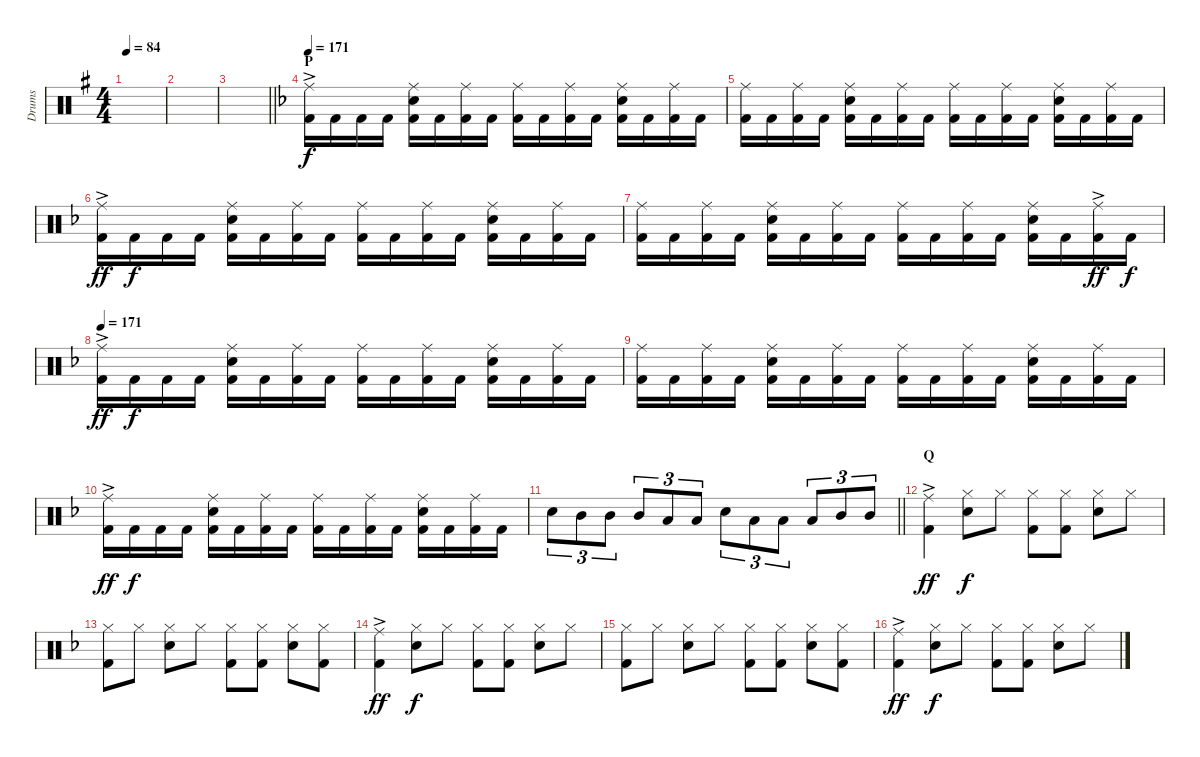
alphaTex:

\track ("Drums" "Drums") {instrument percussion}
\staff {score}
\articulation defaults
\ts (4 4)
\tempo 84
\clef neutral
\ks g
|
|
\barLineRight lightlight
|
\section ("" "P")
\tempo 171
\ks f
("Ride (middle)"{ac} "Kick (hit) 2").16 "Kick (hit) 2".16{dy f} "Kick (hit) 2".16 "Kick (hit) 2".16 ("Ride (middle)" "Snare (hit) 2" "Kick (hit) 2").16 "Kick (hit) 2".16 ("Ride (middle)" "Kick (hit) 2").16 "Kick (hit) 2".16 ("Ride (middle)" "Kick (hit) 2").16 "Kick (hit) 2".16 ("Ride (middle)" "Kick (hit) 2").16 "Kick (hit) 2".16 ("Ride (middle)" "Snare (hit) 2" "Kick (hit) 2").16 "Kick (hit) 2".16 ("Ride (middle)" "Kick (hit) 2").16 "Kick (hit) 2".16 |
("Ride (middle)" "Kick (hit) 2").16 "Kick (hit) 2".16 ("Ride (middle)" "Kick (hit) 2").16 "Kick (hit) 2".16 ("Ride (middle)" "Snare (hit) 2" "Kick (hit) 2").16 "Kick (hit) 2".16 ("Ride (middle)" "Kick (hit) 2").16 "Kick (hit) 2".16 ("Ride (middle)" "Kick (hit) 2").16 "Kick (hit) 2".16 ("Ride (middle)" "Kick (hit) 2").16 "Kick (hit) 2".16 ("Ride (middle)" "Snare (hit) 2" "Kick (hit) 2").16 "Kick (hit) 2".16 ("Ride (middle)" "Kick (hit) 2").16 "Kick (hit) 2".16 |
("Ride (middle)"{ac} "Kick (hit) 2").16{dy ff} "Kick (hit) 2".16{dy f} "Kick (hit) 2".16 "Kick (hit) 2".16 ("Ride (middle)" "Snare (hit) 2" "Kick (hit) 2").16 "Kick (hit) 2".16 ("Ride (middle)" "Kick (hit) 2").16 "Kick (hit) 2".16 ("Ride (middle)" "Kick (hit) 2").16 "Kick (hit) 2".16 ("Ride (middle)" "Kick (hit) 2").16 "Kick (hit) 2".16 ("Ride (middle)" "Snare (hit) 2" "Kick (hit) 2").16 "Kick (hit) 2".16 ("Ride (middle)" "Kick (hit) 2").16 "Kick (hit) 2".16 |
("Ride (middle)" "Kick (hit) 2").16 "Kick (hit) 2".16 ("Ride (middle)" "Kick (hit) 2").16 "Kick (hit) 2".16 ("Ride (middle)" "Snare (hit) 2" "Kick (hit) 2").16 "Kick (hit) 2".16 ("Ride (middle)" "Kick (hit) 2").16 "Kick (hit) 2".16 ("Ride (middle)" "Kick (hit) 2").16 "Kick (hit) 2".16 ("Ride (middle)" "Kick (hit) 2").16 "Kick (hit) 2".16 ("Ride (middle)" "Snare (hit) 2" "Kick (hit) 2").16 "Kick (hit) 2".16 ("Ride (middle)"{ac} "Kick (hit) 2").16{dy ff} "Kick (hit) 2".16{dy f} |
\tempo 171
("Ride (middle)"{ac} "Kick (hit) 2").16{dy ff} "Kick (hit) 2".16{dy f} "Kick (hit) 2".16 "Kick (hit) 2".16 ("Ride (middle)" "Snare (hit) 2" "Kick (hit) 2").16 "Kick (hit) 2".16 ("Ride (middle)" "Kick (hit) 2").16 "Kick (hit) 2".16 ("Ride (middle)" "Kick (hit) 2").16 "Kick (hit) 2".16 ("Ride (middle)" "Kick (hit) 2").16 "Kick (hit) 2".16 ("Ride (middle)" "Snare (hit) 2" "Kick (hit) 2").16 "Kick (hit) 2".16 ("Ride (middle)" "Kick (hit) 2").16 "Kick (hit) 2".16 |
("Ride (middle)" "Kick (hit) 2").16 "Kick (hit) 2".16 ("Ride (middle)" "Kick (hit) 2").16 "Kick (hit) 2".16 ("Ride (middle)" "Snare (hit) 2" "Kick (hit) 2").16 "Kick (hit) 2".16 ("Ride (middle)" "Kick (hit) 2").16 "Kick (hit) 2".16 ("Ride (middle)" "Kick (hit) 2").16 "Kick (hit) 2".16 ("Ride (middle)" "Kick (hit) 2").16 "Kick (hit) 2".16 ("Ride (middle)" "Snare (hit) 2" "Kick (hit) 2").16 "Kick (hit) 2".16 ("Ride (middle)" "Kick (hit) 2").16 "Kick (hit) 2".16 |
("Ride (middle)"{ac} "Kick (hit) 2").16{dy ff} "Kick (hit) 2".16{dy f} "Kick (hit) 2".16 "Kick (hit) 2".16 ("Ride (middle)" "Snare (hit) 2" "Kick (hit) 2").16 "Kick (hit) 2".16 ("Ride (middle)" "Kick (hit) 2").16 "Kick (hit) 2".16 ("Ride (middle)" "Kick (hit) 2").16 "Kick (hit) 2".16 ("Ride (middle)" "Kick (hit) 2").16 "Kick (hit) 2".16 ("Ride (middle)" "Snare (hit) 2" "Kick (hit) 2").16 "Kick (hit) 2".16 ("Ride (middle)" "Kick (hit) 2").16 "Kick (hit) 2".16 |
\barLineRight lightlight "Snare (hit) 2".8{tu (3 2)} "Mid Tom (hit)".8{tu (3 2)} "Mid Tom (hit)".8{tu (3 2)} "Mid Tom (hit)".8{tu (3 2)} "Low Tom (hit)".8{tu (3 2)} "Low Tom (hit)".8{tu (3 2)} "Snare (hit) 2".8{tu (3 2)} "Low Tom (hit)".8{tu (3 2)} "Low Tom (hit)".8{tu (3 2)} "Low Tom (hit)".8{tu (3 2)} "Mid Tom (hit)".8{tu (3 2)} "Mid Tom (hit)".8{tu (3 2)}
|
\section ("" "Q")
("Ride (middle)"{ac} "Kick (hit) 2").4{dy ff} ("Hi-Hat (closed)" "Snare (hit) 2").8{dy f} "Hi-Hat (closed)".8 ("Hi-Hat (closed)" "Kick (hit) 2").8 ("Hi-Hat (closed)" "Kick (hit) 2").8 ("Hi-Hat (closed)" "Snare (hit) 2").8 "Hi-Hat (closed)".8 |
("Hi-Hat (closed)" "Kick (hit) 2").8 "Hi-Hat (closed)".8 ("Hi-Hat (closed)" "Snare (hit) 2").8 "Hi-Hat (closed)".8 ("Hi-Hat (closed)" "Kick (hit) 2").8 ("Hi-Hat (closed)" "Kick (hit) 2").8 ("Hi-Hat (closed)" "Snare (hit) 2").8 ("Hi-Hat (closed)" "Kick (hit) 2").8 |
("Ride (middle)"{ac} "Kick (hit) 2").4{dy ff} ("Hi-Hat (closed)" "Snare (hit) 2").8{dy f} "Hi-Hat (closed)".8 ("Hi-Hat (closed)" "Kick (hit) 2").8 ("Hi-Hat (closed)" "Kick (hit) 2").8 ("Hi-Hat (closed)" "Snare (hit) 2").8 "Hi-Hat (closed)".8 |
("Hi-Hat (closed)" "Kick (hit) 2").8 "Hi-Hat (closed)".8 ("Hi-Hat (closed)" "Snare (hit) 2").8 "Hi-Hat (closed)".8 ("Hi-Hat (closed)" "Kick (hit) 2").8 ("Hi-Hat (closed)" "Kick (hit) 2").8 ("Hi-Hat (closed)" "Snare (hit) 2").8 ("Hi-Hat (closed)" "Kick (hit) 2").8 |
("Ride (middle)"{ac} "Kick (hit) 2").4{dy ff} ("Hi-Hat (closed)" "Snare (hit) 2").8{dy f} "Hi-Hat (closed)".8 ("Hi-Hat (closed)" "Kick (hit) 2").8 ("Hi-Hat (closed)" "Kick (hit) 2").8 ("Hi-Hat (closed)" "Snare (hit) 2").8 "Hi-Hat (closed)".8
